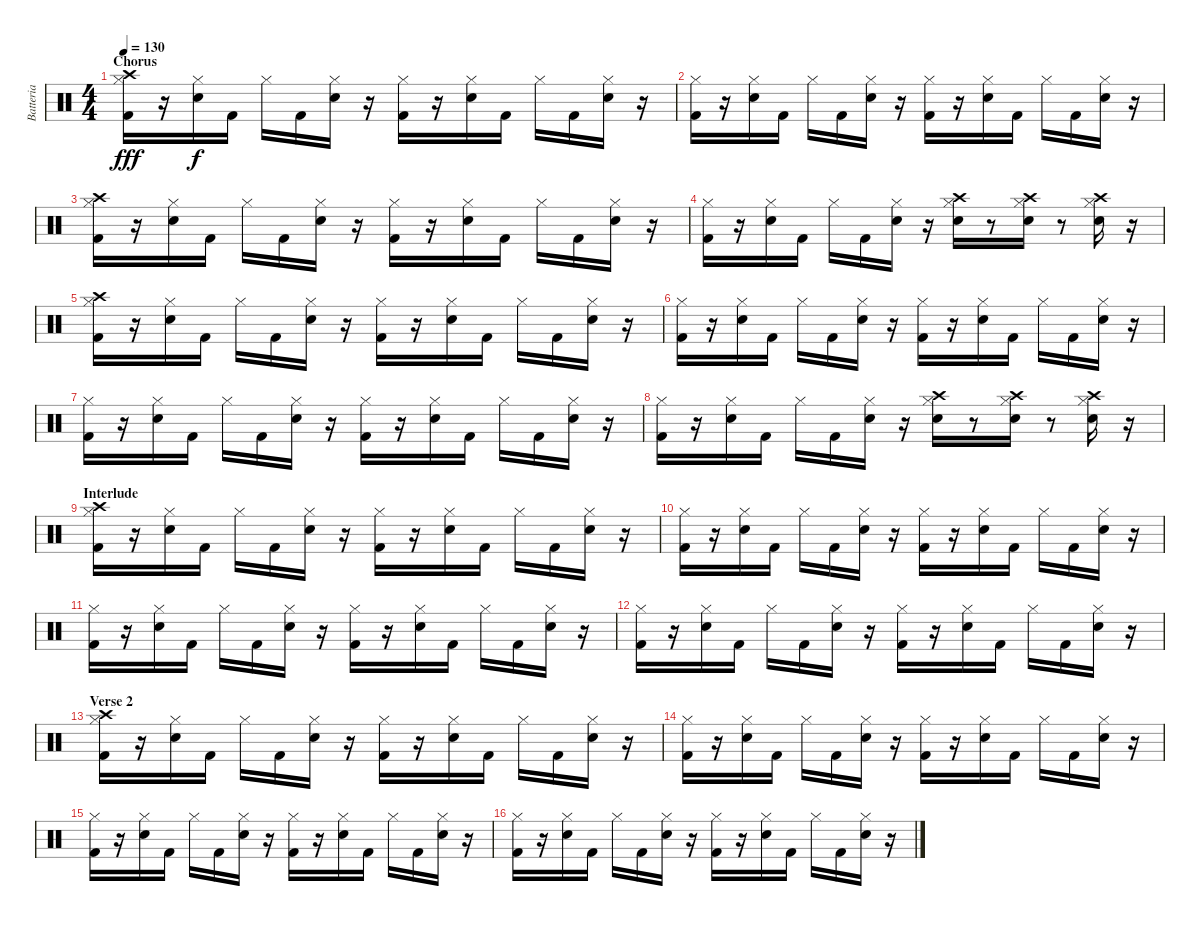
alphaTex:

\track ("Batteria" "Batteria") {instrument percussion}
\staff {score}
\articulation defaults
\ts (4 4)
\section ("" "Chorus")
\tempo 130
\clef neutral
\ks c
("Kick (hit) 2" "Crash high (hit)" "Hi-Hat (closed)").16{dy fff} r.16 ("Snare (hit) 2" "Hi-Hat (closed)").16{dy f} "Kick (hit) 2".16 "Hi-Hat (closed)".16 "Kick (hit) 2".16 ("Snare (hit) 2" "Hi-Hat (closed)").16 r.16 ("Kick (hit) 2" "Hi-Hat (closed)").16 r.16 ("Snare (hit) 2" "Hi-Hat (closed)").16 "Kick (hit) 2".16 "Hi-Hat (closed)".16 "Kick (hit) 2".16 ("Snare (hit) 2" "Hi-Hat (closed)").16 r.16 |
("Kick (hit) 2" "Hi-Hat (closed)").16 r.16 ("Snare (hit) 2" "Hi-Hat (closed)").16 "Kick (hit) 2".16 "Hi-Hat (closed)".16 "Kick (hit) 2".16 ("Snare (hit) 2" "Hi-Hat (closed)").16 r.16 ("Kick (hit) 2" "Hi-Hat (closed)").16 r.16 ("Snare (hit) 2" "Hi-Hat (closed)").16 "Kick (hit) 2".16 "Hi-Hat (closed)".16 "Kick (hit) 2".16 ("Snare (hit) 2" "Hi-Hat (closed)").16 r.16 |
("Kick (hit) 2" "Crash high (hit)" "Hi-Hat (closed)").16 r.16 ("Snare (hit) 2" "Hi-Hat (closed)").16 "Kick (hit) 2".16 "Hi-Hat (closed)".16 "Kick (hit) 2".16 ("Snare (hit) 2" "Hi-Hat (closed)").16 r.16 ("Kick (hit) 2" "Hi-Hat (closed)").16 r.16 ("Snare (hit) 2" "Hi-Hat (closed)").16 "Kick (hit) 2".16 "Hi-Hat (closed)".16 "Kick (hit) 2".16 ("Snare (hit) 2" "Hi-Hat (closed)").16 r.16 |
("Kick (hit) 2" "Hi-Hat (closed)").16 r.16 ("Snare (hit) 2" "Hi-Hat (closed)").16 "Kick (hit) 2".16 "Hi-Hat (closed)".16 "Kick (hit) 2".16 ("Snare (hit) 2" "Hi-Hat (closed)").16 r.16 ("Snare (hit) 2" "Crash high (hit)" "Hi-Hat (closed)").16 r.8 ("Snare (hit) 2" "Crash high (hit)" "Hi-Hat (closed)").16 r.8 ("Snare (hit) 2" "Crash high (hit)" "Hi-Hat (closed)").16 r.16 |
("Kick (hit) 2" "Crash high (hit)" "Hi-Hat (closed)").16 r.16 ("Snare (hit) 2" "Hi-Hat (closed)").16 "Kick (hit) 2".16 "Hi-Hat (closed)".16 "Kick (hit) 2".16 ("Snare (hit) 2" "Hi-Hat (closed)").16 r.16 ("Kick (hit) 2" "Hi-Hat (closed)").16 r.16 ("Snare (hit) 2" "Hi-Hat (closed)").16 "Kick (hit) 2".16 "Hi-Hat (closed)".16 "Kick (hit) 2".16 ("Snare (hit) 2" "Hi-Hat (closed)").16 r.16 |
("Kick (hit) 2" "Hi-Hat (closed)").16 r.16 ("Snare (hit) 2" "Hi-Hat (closed)").16 "Kick (hit) 2".16 "Hi-Hat (closed)".16 "Kick (hit) 2".16 ("Snare (hit) 2" "Hi-Hat (closed)").16 r.16 ("Kick (hit) 2" "Hi-Hat (closed)").16 r.16 ("Snare (hit) 2" "Hi-Hat (closed)").16 "Kick (hit) 2".16 "Hi-Hat (closed)".16 "Kick (hit) 2".16 ("Snare (hit) 2" "Hi-Hat (closed)").16 r.16 |
("Kick (hit) 2" "Hi-Hat (closed)").16 r.16 ("Snare (hit) 2" "Hi-Hat (closed)").16 "Kick (hit) 2".16 "Hi-Hat (closed)".16 "Kick (hit) 2".16 ("Snare (hit) 2" "Hi-Hat (closed)").16 r.16 ("Kick (hit) 2" "Hi-Hat (closed)").16 r.16 ("Snare (hit) 2" "Hi-Hat (closed)").16 "Kick (hit) 2".16 "Hi-Hat (closed)".16 "Kick (hit) 2".16 ("Snare (hit) 2" "Hi-Hat (closed)").16 r.16 |
("Kick (hit) 2" "Hi-Hat (closed)").16 r.16 ("Snare (hit) 2" "Hi-Hat (closed)").16 "Kick (hit) 2".16 "Hi-Hat (closed)".16 "Kick (hit) 2".16 ("Snare (hit) 2" "Hi-Hat (closed)").16 r.16 ("Snare (hit) 2" "Crash high (hit)" "Hi-Hat (closed)").16 r.8 ("Snare (hit) 2" "Crash high (hit)" "Hi-Hat (closed)").16 r.8 ("Snare (hit) 2" "Crash high (hit)" "Hi-Hat (closed)").16 r.16 |
\section ("" "Interlude")
("Kick (hit) 2" "Crash high (hit)" "Hi-Hat (closed)").16 r.16 ("Snare (hit) 2" "Hi-Hat (closed)").16 "Kick (hit) 2".16 "Hi-Hat (closed)".16 "Kick (hit) 2".16 ("Snare (hit) 2" "Hi-Hat (closed)").16 r.16 ("Kick (hit) 2" "Hi-Hat (closed)").16 r.16 ("Snare (hit) 2" "Hi-Hat (closed)").16 "Kick (hit) 2".16 "Hi-Hat (closed)".16 "Kick (hit) 2".16 ("Snare (hit) 2" "Hi-Hat (closed)").16 r.16 |
("Kick (hit) 2" "Hi-Hat (closed)").16 r.16 ("Snare (hit) 2" "Hi-Hat (closed)").16 "Kick (hit) 2".16 "Hi-Hat (closed)".16 "Kick (hit) 2".16 ("Snare (hit) 2" "Hi-Hat (closed)").16 r.16 ("Kick (hit) 2" "Hi-Hat (closed)").16 r.16 ("Snare (hit) 2" "Hi-Hat (closed)").16 "Kick (hit) 2".16 "Hi-Hat (closed)".16 "Kick (hit) 2".16 ("Snare (hit) 2" "Hi-Hat (closed)").16 r.16 |
("Kick (hit) 2" "Hi-Hat (closed)").16 r.16 ("Snare (hit) 2" "Hi-Hat (closed)").16 "Kick (hit) 2".16 "Hi-Hat (closed)".16 "Kick (hit) 2".16 ("Snare (hit) 2" "Hi-Hat (closed)").16 r.16 ("Kick (hit) 2" "Hi-Hat (closed)").16 r.16 ("Snare (hit) 2" "Hi-Hat (closed)").16 "Kick (hit) 2".16 "Hi-Hat (closed)".16 "Kick (hit) 2".16 ("Snare (hit) 2" "Hi-Hat (closed)").16 r.16 |
("Kick (hit) 2" "Hi-Hat (closed)").16 r.16 ("Snare (hit) 2" "Hi-Hat (closed)").16 "Kick (hit) 2".16 "Hi-Hat (closed)".16 "Kick (hit) 2".16 ("Snare (hit) 2" "Hi-Hat (closed)").16 r.16 ("Kick (hit) 2" "Hi-Hat (closed)").16 r.16 ("Snare (hit) 2" "Hi-Hat (closed)").16 "Kick (hit) 2".16 "Hi-Hat (closed)".16 "Kick (hit) 2".16 ("Snare (hit) 2" "Hi-Hat (closed)").16 r.16 |
\section ("" "Verse 2")
("Kick (hit) 2" "Crash high (hit)" "Hi-Hat (closed)").16 r.16 ("Snare (hit) 2" "Hi-Hat (closed)").16 "Kick (hit) 2".16 "Hi-Hat (closed)".16 "Kick (hit) 2".16 ("Snare (hit) 2" "Hi-Hat (closed)").16 r.16 ("Kick (hit) 2" "Hi-Hat (closed)").16 r.16 ("Snare (hit) 2" "Hi-Hat (closed)").16 "Kick (hit) 2".16 "Hi-Hat (closed)".16 "Kick (hit) 2".16 ("Snare (hit) 2" "Hi-Hat (closed)").16 r.16 |
("Kick (hit) 2" "Hi-Hat (closed)").16 r.16 ("Snare (hit) 2" "Hi-Hat (closed)").16 "Kick (hit) 2".16 "Hi-Hat (closed)".16 "Kick (hit) 2".16 ("Snare (hit) 2" "Hi-Hat (closed)").16 r.16 ("Kick (hit) 2" "Hi-Hat (closed)").16 r.16 ("Snare (hit) 2" "Hi-Hat (closed)").16 "Kick (hit) 2".16 "Hi-Hat (closed)".16 "Kick (hit) 2".16 ("Snare (hit) 2" "Hi-Hat (closed)").16 r.16 |
("Kick (hit) 2" "Hi-Hat (closed)").16 r.16 ("Snare (hit) 2" "Hi-Hat (closed)").16 "Kick (hit) 2".16 "Hi-Hat (closed)".16 "Kick (hit) 2".16 ("Snare (hit) 2" "Hi-Hat (closed)").16 r.16 ("Kick (hit) 2" "Hi-Hat (closed)").16 r.16 ("Snare (hit) 2" "Hi-Hat (closed)").16 "Kick (hit) 2".16 "Hi-Hat (closed)".16 "Kick (hit) 2".16 ("Snare (hit) 2" "Hi-Hat (closed)").16 r.16 |
("Kick (hit) 2" "Hi-Hat (closed)").16 r.16 ("Snare (hit) 2" "Hi-Hat (closed)").16 "Kick (hit) 2".16 "Hi-Hat (closed)".16 "Kick (hit) 2".16 ("Snare (hit) 2" "Hi-Hat (closed)").16 r.16 ("Kick (hit) 2" "Hi-Hat (closed)").16 r.16 ("Snare (hit) 2" "Hi-Hat (closed)").16 "Kick (hit) 2".16 "Hi-Hat (closed)".16 "Kick (hit) 2".16 ("Snare (hit) 2" "Hi-Hat (closed)").16 r.16
